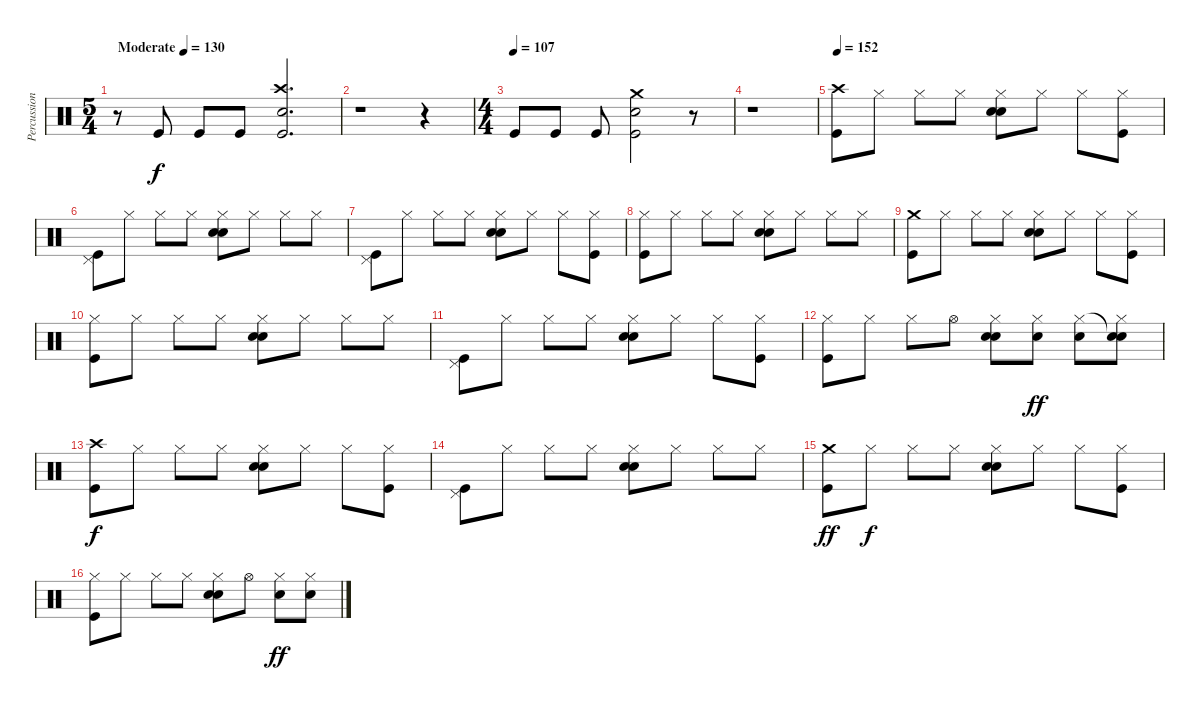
\track ("Percussion" "Percussion") {instrument percussion}
\staff {score}
\articulation defaults
\ts (5 4)
\tempo (130 "Moderate")
\clef neutral
\ks c
r.8{dy f} "Kick (hit)".8 "Kick (hit)".8 "Kick (hit)".8 ("Crash high (hit)" "Electric Snare (hit)" "Kick (hit)").2{d} |
r.1 r.4 |
\ts (4 4)
\tempo (107)
"Kick (hit)".8 "Kick (hit)".8 "Kick (hit)".8 ("Crash medium (hit)" "Electric Snare (hit)" "Kick (hit)").2 r.8 |
r.1 |
\tempo 152
("Crash high (hit)" "Kick (hit)").8 "Hi-Hat (closed)".8 "Hi-Hat (closed)".8 "Hi-Hat (closed)".8 ("Hi-Hat (closed)" "Snare (hit) 2" "Electric Snare (hit)").8 "Hi-Hat (closed)".8 "Hi-Hat (closed)".8 ("Hi-Hat (closed)" "Kick (hit)").8 |
("Pedal Hi-Hat (hit)" "Kick (hit)").8 "Hi-Hat (closed)".8 "Hi-Hat (closed)".8 "Hi-Hat (closed)".8 ("Hi-Hat (closed)" "Snare (hit) 2" "Electric Snare (hit)").8 "Hi-Hat (closed)".8 "Hi-Hat (closed)".8 "Hi-Hat (closed)".8 |
("Pedal Hi-Hat (hit)" "Kick (hit)").8 "Hi-Hat (closed)".8 "Hi-Hat (closed)".8 "Hi-Hat (closed)".8 ("Hi-Hat (closed)" "Snare (hit) 2" "Electric Snare (hit)").8 "Hi-Hat (closed)".8 "Hi-Hat (closed)".8 ("Hi-Hat (closed)" "Kick (hit)").8 |
("Hi-Hat (closed)" "Kick (hit)").8 "Hi-Hat (closed)".8 "Hi-Hat (closed)".8 "Hi-Hat (closed)".8 ("Hi-Hat (closed)" "Snare (hit) 2" "Electric Snare (hit)").8 "Hi-Hat (closed)".8 "Hi-Hat (closed)".8 "Hi-Hat (closed)".8 |
("Crash medium (hit)" "Kick (hit)").8 "Hi-Hat (closed)".8 "Hi-Hat (closed)".8 "Hi-Hat (closed)".8 ("Hi-Hat (closed)" "Snare (hit) 2" "Electric Snare (hit)").8 "Hi-Hat (closed)".8 "Hi-Hat (closed)".8 ("Hi-Hat (closed)" "Kick (hit)").8 |
("Hi-Hat (closed)" "Kick (hit)").8 "Hi-Hat (closed)".8 "Hi-Hat (closed)".8 "Hi-Hat (closed)".8 ("Hi-Hat (closed)" "Snare (hit) 2" "Electric Snare (hit)").8 "Hi-Hat (closed)".8 "Hi-Hat (closed)".8 "Hi-Hat (closed)".8 |
("Pedal Hi-Hat (hit)" "Kick (hit)").8 "Hi-Hat (closed)".8 "Hi-Hat (closed)".8 "Hi-Hat (closed)".8 ("Hi-Hat (closed)" "Snare (hit) 2" "Electric Snare (hit)").8 "Hi-Hat (closed)".8 "Hi-Hat (closed)".8 ("Hi-Hat (closed)" "Kick (hit)").8 |
("Hi-Hat (closed)" "Kick (hit)").8 "Hi-Hat (closed)".8 "Hi-Hat (closed)".8 "Hi-Hat (open)".8 ("Hi-Hat (closed)" "Snare (hit) 2" "Electric Snare (hit)").8 ("Hi-Hat (closed)" "Snare (hit) 2").8{dy ff} ("Hi-Hat (closed)" "Snare (hit) 2").8 ("Snare (hit)"{t} "Hi-Hat (closed)" "Snare (hit) 2").8 |
("Crash high (hit)" "Kick (hit)").8{dy f} "Hi-Hat (closed)".8 "Hi-Hat (closed)".8 "Hi-Hat (closed)".8 ("Hi-Hat (closed)" "Snare (hit) 2" "Electric Snare (hit)").8 "Hi-Hat (closed)".8 "Hi-Hat (closed)".8 ("Hi-Hat (closed)" "Kick (hit)").8 |
("Pedal Hi-Hat (hit)" "Kick (hit)").8 "Hi-Hat (closed)".8 "Hi-Hat (closed)".8 "Hi-Hat (closed)".8 ("Hi-Hat (closed)" "Snare (hit) 2" "Electric Snare (hit)").8 "Hi-Hat (closed)".8 "Hi-Hat (closed)".8 "Hi-Hat (closed)".8 |
("Crash medium (hit)" "Kick (hit)").8{dy ff} "Hi-Hat (closed)".8{dy f} "Hi-Hat (closed)".8 "Hi-Hat (closed)".8 ("Hi-Hat (closed)" "Snare (hit) 2" "Electric Snare (hit)").8 "Hi-Hat (closed)".8 "Hi-Hat (closed)".8 ("Hi-Hat (closed)" "Kick (hit)").8 |
("Hi-Hat (closed)" "Kick (hit)").8 "Hi-Hat (closed)".8 "Hi-Hat (closed)".8 "Hi-Hat (closed)".8 ("Hi-Hat (closed)" "Snare (hit) 2" "Electric Snare (hit)").8 "Hi-Hat (open)".8 ("Hi-Hat (closed)" "Snare (hit) 2").8{dy ff} ("Hi-Hat (closed)" "Snare (hit) 2").8
